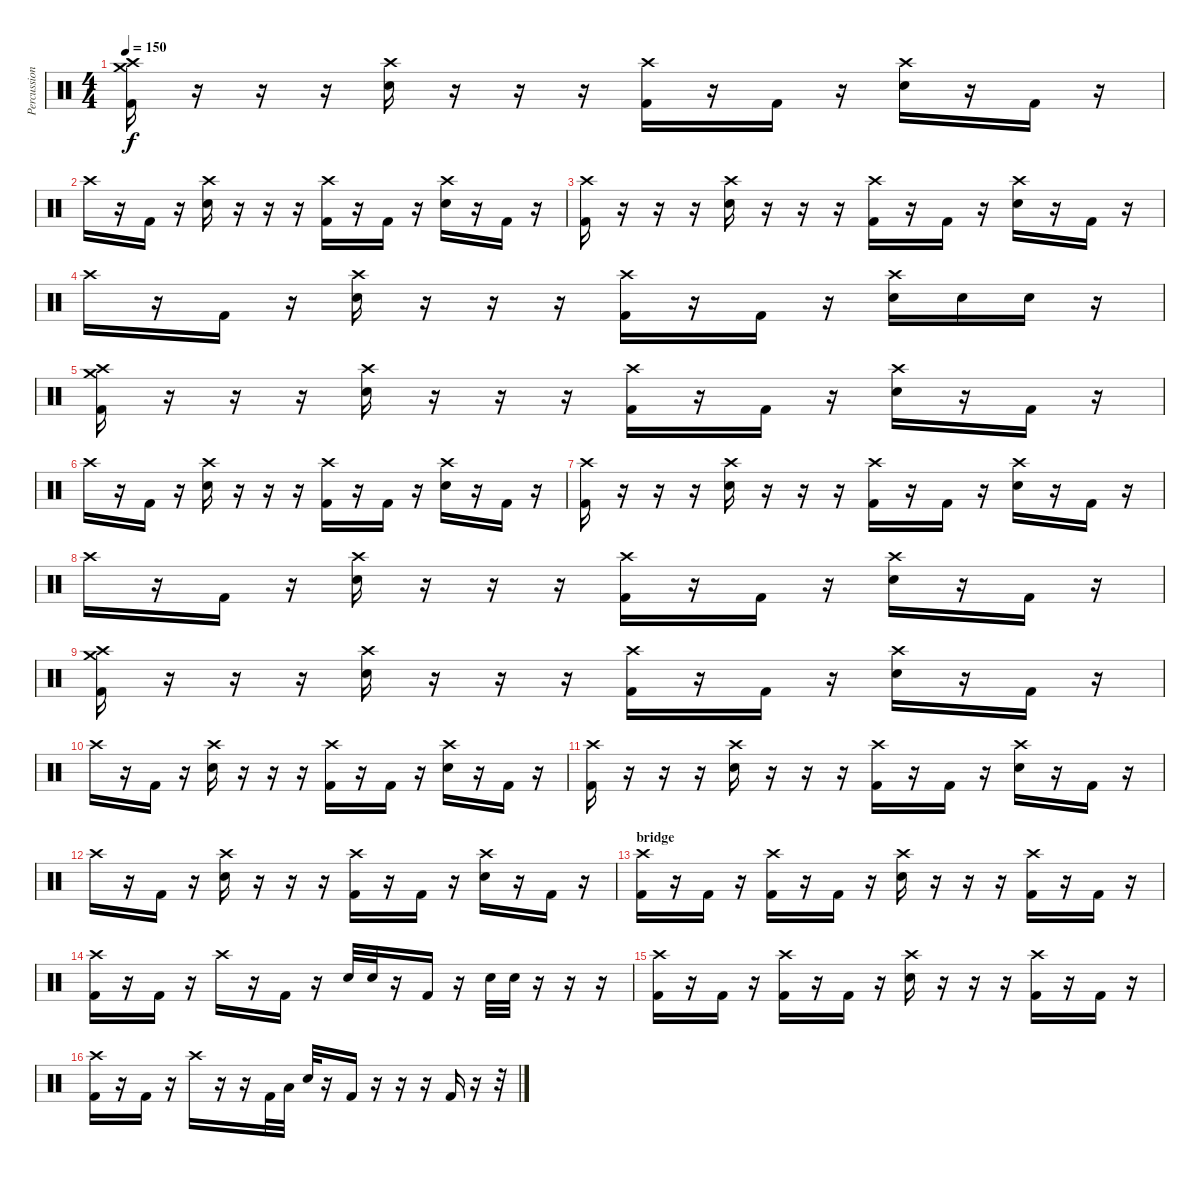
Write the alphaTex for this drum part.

\track ("Percussion" "Percussion") {instrument percussion}
\staff {score}
\articulation defaults
\ts (4 4)
\tempo 150
\clef neutral
\ks c
("Crash high (hit)" "Crash medium (hit)" "Kick (hit) 2").16{dy f} r.16 r.16 r.16 ("Crash high (hit)" "Electric Snare (hit)").16 r.16 r.16 r.16 ("Crash high (hit)" "Kick (hit) 2").16 r.16 "Kick (hit) 2".16 r.16 ("Crash high (hit)" "Electric Snare (hit)").16 r.16 "Kick (hit) 2".16 r.16 |
"Crash high (hit)".16 r.16 "Kick (hit) 2".16 r.16 ("Crash high (hit)" "Electric Snare (hit)").16 r.16 r.16 r.16 ("Crash high (hit)" "Kick (hit) 2").16 r.16 "Kick (hit) 2".16 r.16 ("Crash high (hit)" "Electric Snare (hit)").16 r.16 "Kick (hit) 2".16 r.16 |
("Crash high (hit)" "Kick (hit) 2").16 r.16 r.16 r.16 ("Crash high (hit)" "Electric Snare (hit)").16 r.16 r.16 r.16 ("Crash high (hit)" "Kick (hit) 2").16 r.16 "Kick (hit) 2".16 r.16 ("Crash high (hit)" "Electric Snare (hit)").16 r.16 "Kick (hit) 2".16 r.16 |
"Crash high (hit)".16 r.16 "Kick (hit) 2".16 r.16 ("Crash high (hit)" "Electric Snare (hit)").16 r.16 r.16 r.16 ("Crash high (hit)" "Kick (hit) 2").16 r.16 "Kick (hit) 2".16 r.16 ("Crash high (hit)" "Electric Snare (hit)").16 "Electric Snare (hit)".16 "Electric Snare (hit)".16 r.16 |
("Crash high (hit)" "Crash medium (hit)" "Kick (hit) 2").16 r.16 r.16 r.16 ("Crash high (hit)" "Electric Snare (hit)").16 r.16 r.16 r.16 ("Crash high (hit)" "Kick (hit) 2").16 r.16 "Kick (hit) 2".16 r.16 ("Crash high (hit)" "Electric Snare (hit)").16 r.16 "Kick (hit) 2".16 r.16 |
"Crash high (hit)".16 r.16 "Kick (hit) 2".16 r.16 ("Crash high (hit)" "Electric Snare (hit)").16 r.16 r.16 r.16 ("Crash high (hit)" "Kick (hit) 2").16 r.16 "Kick (hit) 2".16 r.16 ("Crash high (hit)" "Electric Snare (hit)").16 r.16 "Kick (hit) 2".16 r.16 |
("Crash high (hit)" "Kick (hit) 2").16 r.16 r.16 r.16 ("Crash high (hit)" "Electric Snare (hit)").16 r.16 r.16 r.16 ("Crash high (hit)" "Kick (hit) 2").16 r.16 "Kick (hit) 2".16 r.16 ("Crash high (hit)" "Electric Snare (hit)").16 r.16 "Kick (hit) 2".16 r.16 |
"Crash high (hit)".16 r.16 "Kick (hit) 2".16 r.16 ("Crash high (hit)" "Electric Snare (hit)").16 r.16 r.16 r.16 ("Crash high (hit)" "Kick (hit) 2").16 r.16 "Kick (hit) 2".16 r.16 ("Crash high (hit)" "Electric Snare (hit)").16 r.16 "Kick (hit) 2".16 r.16 |
("Crash high (hit)" "Crash medium (hit)" "Kick (hit) 2").16 r.16 r.16 r.16 ("Crash high (hit)" "Electric Snare (hit)").16 r.16 r.16 r.16 ("Crash high (hit)" "Kick (hit) 2").16 r.16 "Kick (hit) 2".16 r.16 ("Crash high (hit)" "Electric Snare (hit)").16 r.16 "Kick (hit) 2".16 r.16 |
"Crash high (hit)".16 r.16 "Kick (hit) 2".16 r.16 ("Crash high (hit)" "Electric Snare (hit)").16 r.16 r.16 r.16 ("Crash high (hit)" "Kick (hit) 2").16 r.16 "Kick (hit) 2".16 r.16 ("Crash high (hit)" "Electric Snare (hit)").16 r.16 "Kick (hit) 2".16 r.16 |
("Crash high (hit)" "Kick (hit) 2").16 r.16 r.16 r.16 ("Crash high (hit)" "Electric Snare (hit)").16 r.16 r.16 r.16 ("Crash high (hit)" "Kick (hit) 2").16 r.16 "Kick (hit) 2".16 r.16 ("Crash high (hit)" "Electric Snare (hit)").16 r.16 "Kick (hit) 2".16 r.16 |
"Crash high (hit)".16 r.16 "Kick (hit) 2".16 r.16 ("Crash high (hit)" "Electric Snare (hit)").16 r.16 r.16 r.16 ("Crash high (hit)" "Kick (hit) 2").16 r.16 "Kick (hit) 2".16 r.16 ("Crash high (hit)" "Electric Snare (hit)").16 r.16 "Kick (hit) 2".16 r.16 |
\section ("" "bridge")
("Crash high (hit)" "Kick (hit) 2").16 r.16 "Kick (hit) 2".16 r.16 ("Crash high (hit)" "Kick (hit) 2").16 r.16 "Kick (hit) 2".16 r.16 ("Crash high (hit)" "Electric Snare (hit)").16 r.16 r.16 r.16 ("Crash high (hit)" "Kick (hit) 2").16 r.16 "Kick (hit) 2".16 r.16 |
("Crash high (hit)" "Kick (hit) 2").16 r.16 "Kick (hit) 2".16 r.16 "Crash high (hit)".16 r.16 "Kick (hit) 2".16 r.16 "Electric Snare (hit)".32 "Electric Snare (hit)".32 r.16 "Kick (hit) 2".16 r.16 "Electric Snare (hit)".32 "Electric Snare (hit)".32 r.16 r.16 r.16 |
("Crash high (hit)" "Kick (hit) 2").16 r.16 "Kick (hit) 2".16 r.16 ("Crash high (hit)" "Kick (hit) 2").16 r.16 "Kick (hit) 2".16 r.16 ("Crash high (hit)" "Electric Snare (hit)").16 r.16 r.16 r.16 ("Crash high (hit)" "Kick (hit) 2").16 r.16 "Kick (hit) 2".16 r.16 |
("Crash high (hit)" "Kick (hit) 2").16 r.16 "Kick (hit) 2".16 r.16 "Crash high (hit)".16 r.16 r.16 "Kick (hit) 2".32 "Low Floor Tom (hit)".32 "Electric Snare (hit)".32 r.16 "Kick (hit) 2".16 r.16 r.16 r.16 "Kick (hit) 2".16 r.16 r.32
